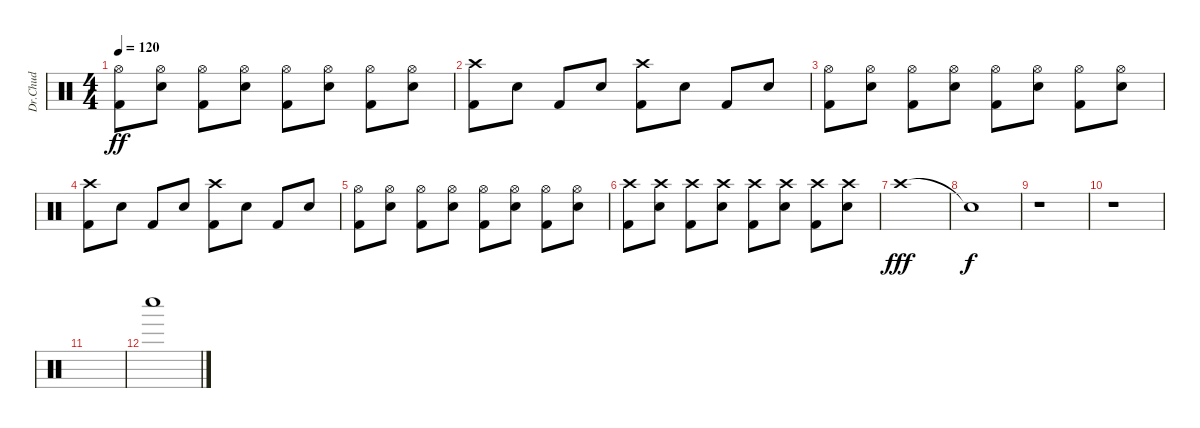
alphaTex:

\track ("Dr.Chud" "Dr.Chud") {instrument percussion}
\staff {score}
\articulation defaults
\ts (4 4)
\tempo 120
\clef neutral
\ks c
("Hi-Hat (open)" "Kick (hit) 2").8{dy ff} ("Hi-Hat (open)" "Electric Snare (hit)").8 ("Hi-Hat (open)" "Kick (hit) 2").8 ("Hi-Hat (open)" "Electric Snare (hit)").8 ("Hi-Hat (open)" "Kick (hit) 2").8 ("Hi-Hat (open)" "Electric Snare (hit)").8 ("Hi-Hat (open)" "Kick (hit) 2").8 ("Hi-Hat (open)" "Electric Snare (hit)").8 |
("Crash high (hit)" "Kick (hit) 2").8 "Electric Snare (hit)".8 "Kick (hit) 2".8 "Electric Snare (hit)".8 ("Crash high (hit)" "Kick (hit) 2").8 "Electric Snare (hit)".8 "Kick (hit) 2".8 "Electric Snare (hit)".8 |
("Hi-Hat (open)" "Kick (hit) 2").8 ("Hi-Hat (open)" "Electric Snare (hit)").8 ("Hi-Hat (open)" "Kick (hit) 2").8 ("Hi-Hat (open)" "Electric Snare (hit)").8 ("Hi-Hat (open)" "Kick (hit) 2").8 ("Hi-Hat (open)" "Electric Snare (hit)").8 ("Hi-Hat (open)" "Kick (hit) 2").8 ("Hi-Hat (open)" "Electric Snare (hit)").8 |
("Crash high (hit)" "Kick (hit) 2").8 "Electric Snare (hit)".8 "Kick (hit) 2".8 "Electric Snare (hit)".8 ("Crash high (hit)" "Kick (hit) 2").8 "Electric Snare (hit)".8 "Kick (hit) 2".8 "Electric Snare (hit)".8 |
("Hi-Hat (open)" "Kick (hit) 2").8 ("Hi-Hat (open)" "Electric Snare (hit)").8 ("Hi-Hat (open)" "Kick (hit) 2").8 ("Hi-Hat (open)" "Electric Snare (hit)").8 ("Hi-Hat (open)" "Kick (hit) 2").8 ("Hi-Hat (open)" "Electric Snare (hit)").8 ("Hi-Hat (open)" "Kick (hit) 2").8 ("Hi-Hat (open)" "Electric Snare (hit)").8 |
("Crash high (hit)" "Kick (hit) 2").8 ("Crash high (hit)" "Electric Snare (hit)").8 ("Crash high (hit)" "Kick (hit) 2").8 ("Crash high (hit)" "Electric Snare (hit)").8 ("Crash high (hit)" "Kick (hit) 2").8 ("Crash high (hit)" "Electric Snare (hit)").8 ("Crash high (hit)" "Kick (hit) 2").8 ("Crash high (hit)" "Electric Snare (hit)").8 |
"Crash high (hit)".1{dy fff} |
"Snare (hit)"{t}.1{dy f} |
r.1 |
r.1 |
|
"Whistle low (hit)".1
